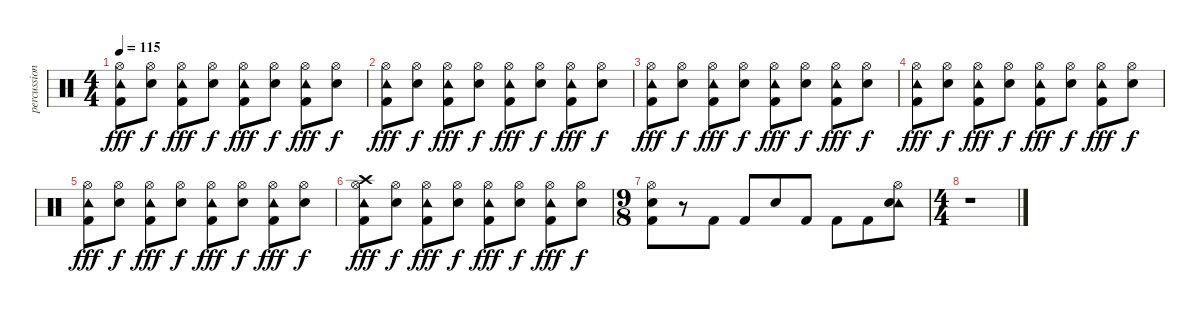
\track ("percussion - vom" "percussion") {instrument percussion}
\staff {score}
\articulation defaults
\ts (4 4)
\tempo 115
\clef neutral
\ks c
("Hi-Hat (open)" "Tambourine (hit)" "Kick (hit) 2").8{dy fff} ("Hi-Hat (open)" "Snare (hit) 2").8{dy f} ("Hi-Hat (open)" "Tambourine (hit)" "Kick (hit) 2").8{dy fff} ("Hi-Hat (open)" "Snare (hit) 2").8{dy f} ("Hi-Hat (open)" "Tambourine (hit)" "Kick (hit) 2").8{dy fff} ("Hi-Hat (open)" "Snare (hit) 2").8{dy f} ("Hi-Hat (open)" "Tambourine (hit)" "Kick (hit) 2").8{dy fff} ("Hi-Hat (open)" "Snare (hit) 2").8{dy f} |
("Hi-Hat (open)" "Tambourine (hit)" "Kick (hit) 2").8{dy fff} ("Hi-Hat (open)" "Snare (hit) 2").8{dy f} ("Hi-Hat (open)" "Tambourine (hit)" "Kick (hit) 2").8{dy fff} ("Hi-Hat (open)" "Snare (hit) 2").8{dy f} ("Hi-Hat (open)" "Tambourine (hit)" "Kick (hit) 2").8{dy fff} ("Hi-Hat (open)" "Snare (hit) 2").8{dy f} ("Hi-Hat (open)" "Tambourine (hit)" "Kick (hit) 2").8{dy fff} ("Hi-Hat (open)" "Snare (hit) 2").8{dy f} |
("Hi-Hat (open)" "Tambourine (hit)" "Kick (hit) 2").8{dy fff} ("Hi-Hat (open)" "Snare (hit) 2").8{dy f} ("Hi-Hat (open)" "Tambourine (hit)" "Kick (hit) 2").8{dy fff} ("Hi-Hat (open)" "Snare (hit) 2").8{dy f} ("Hi-Hat (open)" "Tambourine (hit)" "Kick (hit) 2").8{dy fff} ("Hi-Hat (open)" "Snare (hit) 2").8{dy f} ("Hi-Hat (open)" "Tambourine (hit)" "Kick (hit) 2").8{dy fff} ("Hi-Hat (open)" "Snare (hit) 2").8{dy f} |
("Hi-Hat (open)" "Tambourine (hit)" "Kick (hit) 2").8{dy fff} ("Hi-Hat (open)" "Snare (hit) 2").8{dy f} ("Hi-Hat (open)" "Tambourine (hit)" "Kick (hit) 2").8{dy fff} ("Hi-Hat (open)" "Snare (hit) 2").8{dy f} ("Hi-Hat (open)" "Tambourine (hit)" "Kick (hit) 2").8{dy fff} ("Hi-Hat (open)" "Snare (hit) 2").8{dy f} ("Hi-Hat (open)" "Tambourine (hit)" "Kick (hit) 2").8{dy fff} ("Hi-Hat (open)" "Snare (hit) 2").8{dy f} |
("Hi-Hat (open)" "Tambourine (hit)" "Kick (hit) 2").8{dy fff} ("Hi-Hat (open)" "Snare (hit) 2").8{dy f} ("Hi-Hat (open)" "Tambourine (hit)" "Kick (hit) 2").8{dy fff} ("Hi-Hat (open)" "Snare (hit) 2").8{dy f} ("Hi-Hat (open)" "Tambourine (hit)" "Kick (hit) 2").8{dy fff} ("Hi-Hat (open)" "Snare (hit) 2").8{dy f} ("Hi-Hat (open)" "Tambourine (hit)" "Kick (hit) 2").8{dy fff} ("Hi-Hat (open)" "Snare (hit) 2").8{dy f} |
("Hi-Hat (open)" "Crash high (hit)" "Tambourine (hit)" "Kick (hit) 2").8{dy fff} ("Hi-Hat (open)" "Snare (hit) 2").8{dy f} ("Hi-Hat (open)" "Tambourine (hit)" "Kick (hit) 2").8{dy fff} ("Hi-Hat (open)" "Snare (hit) 2").8{dy f} ("Hi-Hat (open)" "Tambourine (hit)" "Kick (hit) 2").8{dy fff} ("Hi-Hat (open)" "Snare (hit) 2").8{dy f} ("Hi-Hat (open)" "Tambourine (hit)" "Kick (hit) 2").8{dy fff} ("Hi-Hat (open)" "Snare (hit) 2").8{dy f} |
\ts (9 8)
("Hi-Hat (open)" "Snare (hit) 2" "Kick (hit) 2").8 r.8 "Kick (hit) 2".8 "Kick (hit) 2".8 "Snare (hit) 2".8 "Kick (hit) 2".8 "Kick (hit) 2".8 "Kick (hit) 2".8 ("Hi-Hat (open)" "Tambourine (hit)" "Snare (hit) 2").8 |
\ts (4 4)
r.1
